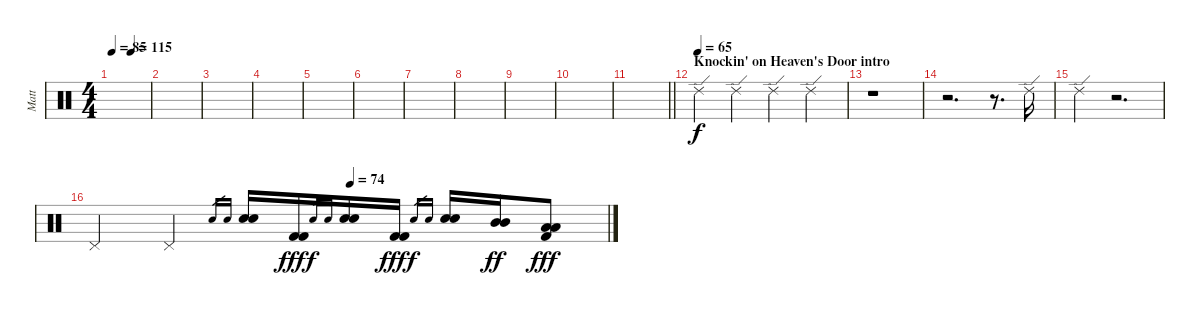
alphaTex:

\track ("Matt" "Matt") {instrument percussion}
\staff {score}
\articulation defaults
\ts (4 4)
\tempo 85
\tempo (115 0.5)
\clef neutral
\ks c
|
|
|
|
|
|
|
|
|
|
\barLineRight lightlight
|
\section ("" "Knockin' on Heaven's Door intro ")
\tempo (65)
"Ride (edge) 2".4 "Ride (edge) 2".4 "Ride (edge) 2".4 "Ride (edge) 2".4 |
r.1 |
r.2{d} r.8{d} "Ride (edge) 2".16 |
"Ride (edge) 2".4 r.2{d} |
\tempo (74 0.5)
"Pedal Hi-Hat (hit)".4{dy f} "Pedal Hi-Hat (hit)".4 "Electric Snare (hit)".16{gr} "Electric Snare (hit)".16{gr} ("Electric Snare (hit)" "Electric Snare (hit)").16 ("Kick (hit) 2" "Kick (hit) 2").16{dy fff} "Electric Snare (hit)".16{gr dy f} "Electric Snare (hit)".16{gr} ("Electric Snare (hit)" "Electric Snare (hit)").16 ("Kick (hit) 2" "Kick (hit) 2").16{dy fff} "Electric Snare (hit)".16{gr dy f} "Electric Snare (hit)".16{gr} ("Electric Snare (hit)" "Electric Snare (hit)").16 ("Mid Tom (hit)" "Mid Tom (hit)").16{dy ff} ("Low Tom (hit)" "Low Tom (hit)" "Kick (hit) 2").8{dy fff}
